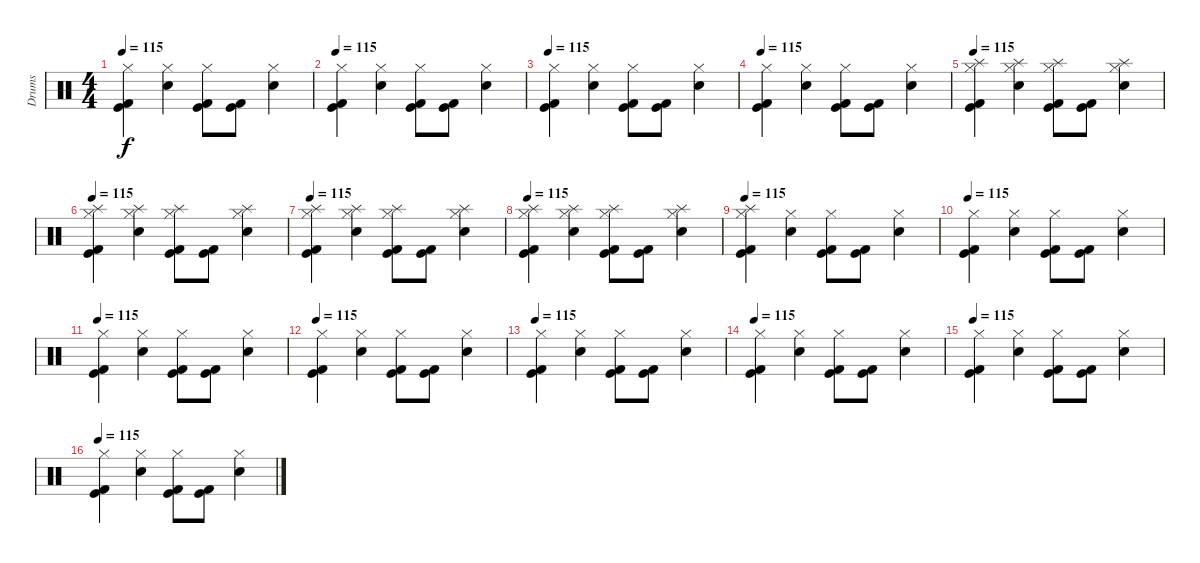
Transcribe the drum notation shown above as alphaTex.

\track ("Drums" "Drums") {instrument percussion}
\staff {score}
\articulation defaults
\ts (4 4)
\tempo 115
\clef neutral
\ks c
("Kick (hit) 2" "Kick (hit)" "Hi-Hat (closed)").4{dy f} ("Hi-Hat (closed)" "Electric Snare (hit)").4 ("Kick (hit) 2" "Kick (hit)" "Hi-Hat (closed)").8 ("Kick (hit) 2" "Kick (hit)").8 ("Electric Snare (hit)" "Hi-Hat (closed)").4 |
\tempo 115
("Kick (hit) 2" "Kick (hit)" "Hi-Hat (closed)").4 ("Hi-Hat (closed)" "Electric Snare (hit)").4 ("Kick (hit) 2" "Kick (hit)" "Hi-Hat (closed)").8 ("Kick (hit) 2" "Kick (hit)").8 ("Electric Snare (hit)" "Hi-Hat (closed)").4 |
\tempo 115
("Kick (hit) 2" "Kick (hit)" "Hi-Hat (closed)").4 ("Hi-Hat (closed)" "Electric Snare (hit)").4 ("Kick (hit) 2" "Kick (hit)" "Hi-Hat (closed)").8 ("Kick (hit) 2" "Kick (hit)").8 ("Electric Snare (hit)" "Hi-Hat (closed)").4 |
\tempo 115
("Kick (hit) 2" "Kick (hit)" "Hi-Hat (closed)").4 ("Hi-Hat (closed)" "Electric Snare (hit)").4 ("Kick (hit) 2" "Kick (hit)" "Hi-Hat (closed)").8 ("Kick (hit) 2" "Kick (hit)").8 ("Electric Snare (hit)" "Hi-Hat (closed)").4 |
\tempo 115
("Splash (hit)" "Kick (hit) 2" "Kick (hit)" "Hi-Hat (closed)").4 ("Splash (hit)" "Hi-Hat (closed)" "Electric Snare (hit)").4 ("Splash (hit)" "Kick (hit) 2" "Kick (hit)" "Hi-Hat (closed)").8 ("Kick (hit) 2" "Kick (hit)").8 ("Splash (hit)" "Electric Snare (hit)" "Hi-Hat (closed)").4 |
\tempo 115
("Splash (hit)" "Kick (hit) 2" "Kick (hit)" "Hi-Hat (closed)").4 ("Splash (hit)" "Hi-Hat (closed)" "Electric Snare (hit)").4 ("Splash (hit)" "Kick (hit) 2" "Kick (hit)" "Hi-Hat (closed)").8 ("Kick (hit) 2" "Kick (hit)").8 ("Splash (hit)" "Electric Snare (hit)" "Hi-Hat (closed)").4 |
\tempo 115
("Splash (hit)" "Kick (hit) 2" "Kick (hit)" "Hi-Hat (closed)").4 ("Splash (hit)" "Hi-Hat (closed)" "Electric Snare (hit)").4 ("Splash (hit)" "Kick (hit) 2" "Kick (hit)" "Hi-Hat (closed)").8 ("Kick (hit) 2" "Kick (hit)").8 ("Splash (hit)" "Electric Snare (hit)" "Hi-Hat (closed)").4 |
\tempo 115
("Splash (hit)" "Kick (hit) 2" "Kick (hit)" "Hi-Hat (closed)").4 ("Splash (hit)" "Hi-Hat (closed)" "Electric Snare (hit)").4 ("Splash (hit)" "Kick (hit) 2" "Kick (hit)" "Hi-Hat (closed)").8 ("Kick (hit) 2" "Kick (hit)").8 ("Splash (hit)" "Electric Snare (hit)" "Hi-Hat (closed)").4 |
\tempo 115
("Splash (hit)" "Kick (hit) 2" "Kick (hit)" "Hi-Hat (closed)").4 ("Hi-Hat (closed)" "Electric Snare (hit)").4 ("Kick (hit) 2" "Kick (hit)" "Hi-Hat (closed)").8 ("Kick (hit) 2" "Kick (hit)").8 ("Electric Snare (hit)" "Hi-Hat (closed)").4 |
\tempo 115
("Kick (hit) 2" "Kick (hit)" "Hi-Hat (closed)").4 ("Hi-Hat (closed)" "Electric Snare (hit)").4 ("Kick (hit) 2" "Kick (hit)" "Hi-Hat (closed)").8 ("Kick (hit) 2" "Kick (hit)").8 ("Electric Snare (hit)" "Hi-Hat (closed)").4 |
\tempo 115
("Kick (hit) 2" "Kick (hit)" "Hi-Hat (closed)").4 ("Hi-Hat (closed)" "Electric Snare (hit)").4 ("Kick (hit) 2" "Kick (hit)" "Hi-Hat (closed)").8 ("Kick (hit) 2" "Kick (hit)").8 ("Electric Snare (hit)" "Hi-Hat (closed)").4 |
\tempo 115
("Kick (hit) 2" "Kick (hit)" "Hi-Hat (closed)").4 ("Hi-Hat (closed)" "Electric Snare (hit)").4 ("Kick (hit) 2" "Kick (hit)" "Hi-Hat (closed)").8 ("Kick (hit) 2" "Kick (hit)").8 ("Electric Snare (hit)" "Hi-Hat (closed)").4 |
\tempo 115
("Kick (hit) 2" "Kick (hit)" "Hi-Hat (closed)").4 ("Hi-Hat (closed)" "Electric Snare (hit)").4 ("Kick (hit) 2" "Kick (hit)" "Hi-Hat (closed)").8 ("Kick (hit) 2" "Kick (hit)").8 ("Electric Snare (hit)" "Hi-Hat (closed)").4 |
\tempo 115
("Kick (hit) 2" "Kick (hit)" "Hi-Hat (closed)").4 ("Hi-Hat (closed)" "Electric Snare (hit)").4 ("Kick (hit) 2" "Kick (hit)" "Hi-Hat (closed)").8 ("Kick (hit) 2" "Kick (hit)").8 ("Electric Snare (hit)" "Hi-Hat (closed)").4 |
\tempo 115
("Kick (hit) 2" "Kick (hit)" "Hi-Hat (closed)").4 ("Hi-Hat (closed)" "Electric Snare (hit)").4 ("Kick (hit) 2" "Kick (hit)" "Hi-Hat (closed)").8 ("Kick (hit) 2" "Kick (hit)").8 ("Electric Snare (hit)" "Hi-Hat (closed)").4 |
\tempo 115
("Kick (hit) 2" "Kick (hit)" "Hi-Hat (closed)").4 ("Hi-Hat (closed)" "Electric Snare (hit)").4 ("Kick (hit) 2" "Kick (hit)" "Hi-Hat (closed)").8 ("Kick (hit) 2" "Kick (hit)").8 ("Electric Snare (hit)" "Hi-Hat (closed)").4
